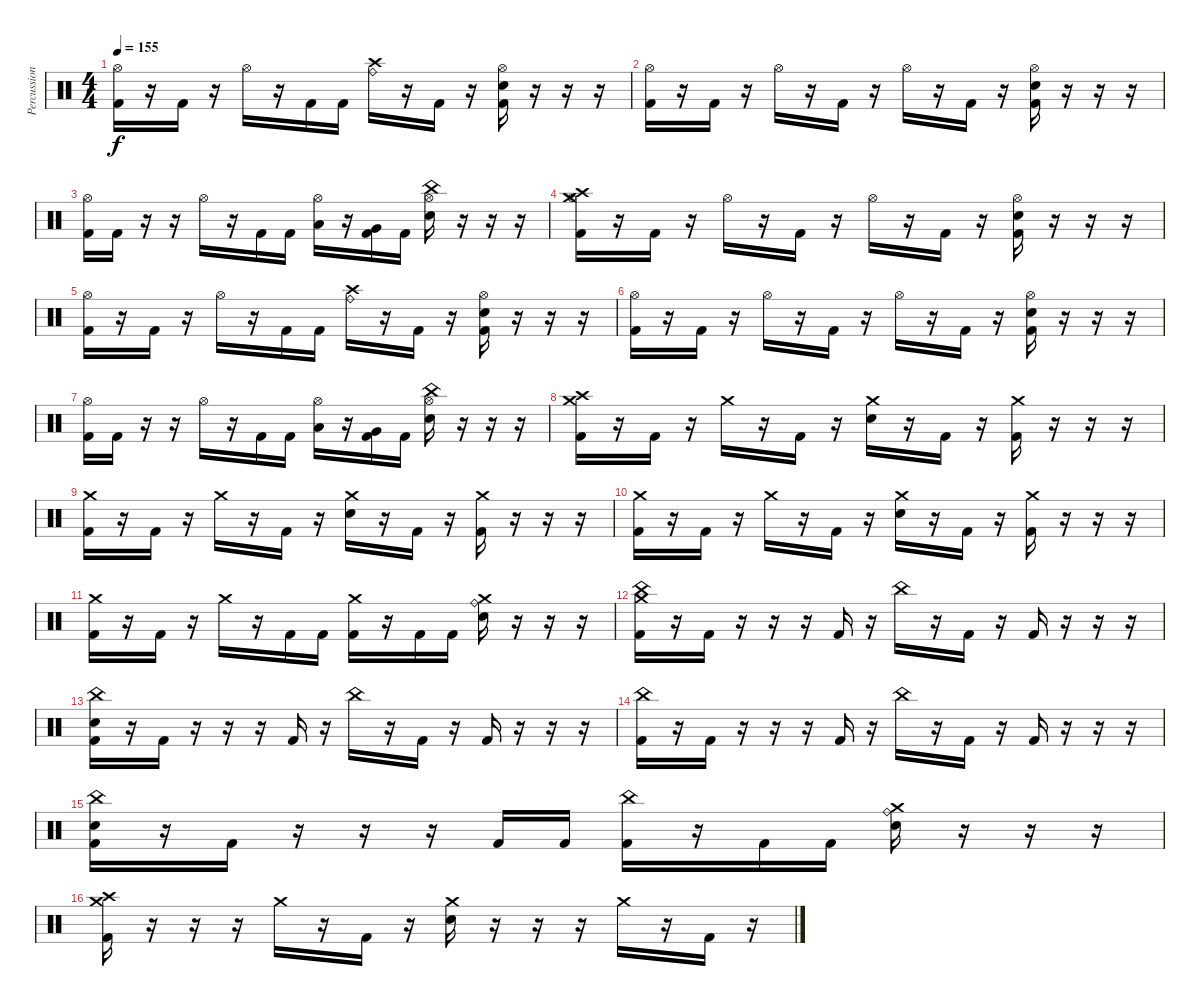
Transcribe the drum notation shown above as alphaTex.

\track ("Percussion" "Percussion") {instrument percussion}
\staff {score}
\articulation defaults
\ts (4 4)
\tempo 155
\clef neutral
\ks c
("Hi-Hat (open)" "Kick (hit) 2").16{dy f} r.16 "Kick (hit) 2".16 r.16 "Hi-Hat (open)".16 r.16 "Kick (hit) 2".16 "Kick (hit) 2".16 ("Crash high (hit)" "Ride (bell)").16 r.16 "Kick (hit) 2".16 r.16 ("Hi-Hat (open)" "Snare (hit) 2" "Kick (hit) 2").16 r.16 r.16 r.16 |
("Hi-Hat (open)" "Kick (hit) 2").16 r.16 "Kick (hit) 2".16 r.16 "Hi-Hat (open)".16 r.16 "Kick (hit) 2".16 r.16 "Hi-Hat (open)".16 r.16 "Kick (hit) 2".16 r.16 ("Hi-Hat (open)" "Snare (hit) 2" "Kick (hit) 2").16 r.16 r.16 r.16 |
("Hi-Hat (open)" "Kick (hit) 2").16 "Kick (hit) 2".16 r.16 r.16 "Hi-Hat (open)".16 r.16 "Kick (hit) 2".16 "Kick (hit) 2".16 ("Hi-Hat (open)" "Low Tom (hit)").16 r.16 ("Very Low Tom (hit)" "Kick (hit) 2").16 "Kick (hit) 2".16 ("Hi-Hat (open)" "China (hit)" "Snare (hit) 2").16 r.16 r.16 r.16 |
("Crash high (hit)" "Crash medium (hit)" "Hi-Hat (open)" "Kick (hit) 2").16 r.16 "Kick (hit) 2".16 r.16 "Hi-Hat (open)".16 r.16 "Kick (hit) 2".16 r.16 "Hi-Hat (open)".16 r.16 "Kick (hit) 2".16 r.16 ("Hi-Hat (open)" "Snare (hit) 2" "Kick (hit) 2").16 r.16 r.16 r.16 |
("Hi-Hat (open)" "Kick (hit) 2").16 r.16 "Kick (hit) 2".16 r.16 "Hi-Hat (open)".16 r.16 "Kick (hit) 2".16 "Kick (hit) 2".16 ("Crash high (hit)" "Ride (bell)").16 r.16 "Kick (hit) 2".16 r.16 ("Hi-Hat (open)" "Snare (hit) 2" "Kick (hit) 2").16 r.16 r.16 r.16 |
("Hi-Hat (open)" "Kick (hit) 2").16 r.16 "Kick (hit) 2".16 r.16 "Hi-Hat (open)".16 r.16 "Kick (hit) 2".16 r.16 "Hi-Hat (open)".16 r.16 "Kick (hit) 2".16 r.16 ("Hi-Hat (open)" "Snare (hit) 2" "Kick (hit) 2").16 r.16 r.16 r.16 |
("Hi-Hat (open)" "Kick (hit) 2").16 "Kick (hit) 2".16 r.16 r.16 "Hi-Hat (open)".16 r.16 "Kick (hit) 2".16 "Kick (hit) 2".16 ("Hi-Hat (open)" "Low Tom (hit)").16 r.16 ("Very Low Tom (hit)" "Kick (hit) 2").16 "Kick (hit) 2".16 ("Hi-Hat (open)" "China (hit)" "Snare (hit) 2").16 r.16 r.16 r.16 |
("Crash medium (hit)" "Crash high (hit)" "Kick (hit) 2").16 r.16 "Kick (hit) 2".16 r.16 "Crash medium (hit)".16 r.16 "Kick (hit) 2".16 r.16 ("Crash medium (hit)" "Snare (hit) 2").16 r.16 "Kick (hit) 2".16 r.16 ("Crash medium (hit)" "Kick (hit) 2").16 r.16 r.16 r.16 |
("Crash medium (hit)" "Kick (hit) 2").16 r.16 "Kick (hit) 2".16 r.16 "Crash medium (hit)".16 r.16 "Kick (hit) 2".16 r.16 ("Crash medium (hit)" "Snare (hit) 2").16 r.16 "Kick (hit) 2".16 r.16 ("Crash medium (hit)" "Kick (hit) 2").16 r.16 r.16 r.16 |
("Crash medium (hit)" "Kick (hit) 2").16 r.16 "Kick (hit) 2".16 r.16 "Crash medium (hit)".16 r.16 "Kick (hit) 2".16 r.16 ("Crash medium (hit)" "Snare (hit) 2").16 r.16 "Kick (hit) 2".16 r.16 ("Crash medium (hit)" "Kick (hit) 2").16 r.16 r.16 r.16 |
("Crash medium (hit)" "Kick (hit) 2").16 r.16 "Kick (hit) 2".16 r.16 "Crash medium (hit)".16 r.16 "Kick (hit) 2".16 "Kick (hit) 2".16 ("Crash medium (hit)" "Kick (hit) 2").16 r.16 "Kick (hit) 2".16 "Kick (hit) 2".16 ("Crash medium (hit)" "Ride (bell)" "Snare (hit) 2").16 r.16 r.16 r.16 |
("Crash medium (hit)" "China (hit)" "Kick (hit) 2").16 r.16 "Kick (hit) 2".16 r.16 r.16 r.16 "Kick (hit) 2".16 r.16 "China (hit)".16 r.16 "Kick (hit) 2".16 r.16 "Kick (hit) 2".16 r.16 r.16 r.16 |
("China (hit)" "Snare (hit) 2" "Kick (hit) 2").16 r.16 "Kick (hit) 2".16 r.16 r.16 r.16 "Kick (hit) 2".16 r.16 "China (hit)".16 r.16 "Kick (hit) 2".16 r.16 "Kick (hit) 2".16 r.16 r.16 r.16 |
("China (hit)" "Kick (hit) 2").16 r.16 "Kick (hit) 2".16 r.16 r.16 r.16 "Kick (hit) 2".16 r.16 "China (hit)".16 r.16 "Kick (hit) 2".16 r.16 "Kick (hit) 2".16 r.16 r.16 r.16 |
("China (hit)" "Snare (hit) 2" "Kick (hit) 2").16 r.16 "Kick (hit) 2".16 r.16 r.16 r.16 "Kick (hit) 2".16 "Kick (hit) 2".16 ("China (hit)" "Kick (hit) 2").16 r.16 "Kick (hit) 2".16 "Kick (hit) 2".16 ("Crash medium (hit)" "Ride (bell)" "Snare (hit) 2").16 r.16 r.16 r.16 |
("Crash high (hit)" "Crash medium (hit)" "Kick (hit) 2").16 r.16 r.16 r.16 "Crash medium (hit)".16 r.16 "Kick (hit) 2".16 r.16 ("Crash medium (hit)" "Snare (hit) 2").16 r.16 r.16 r.16 "Crash medium (hit)".16 r.16 "Kick (hit) 2".16 r.16
